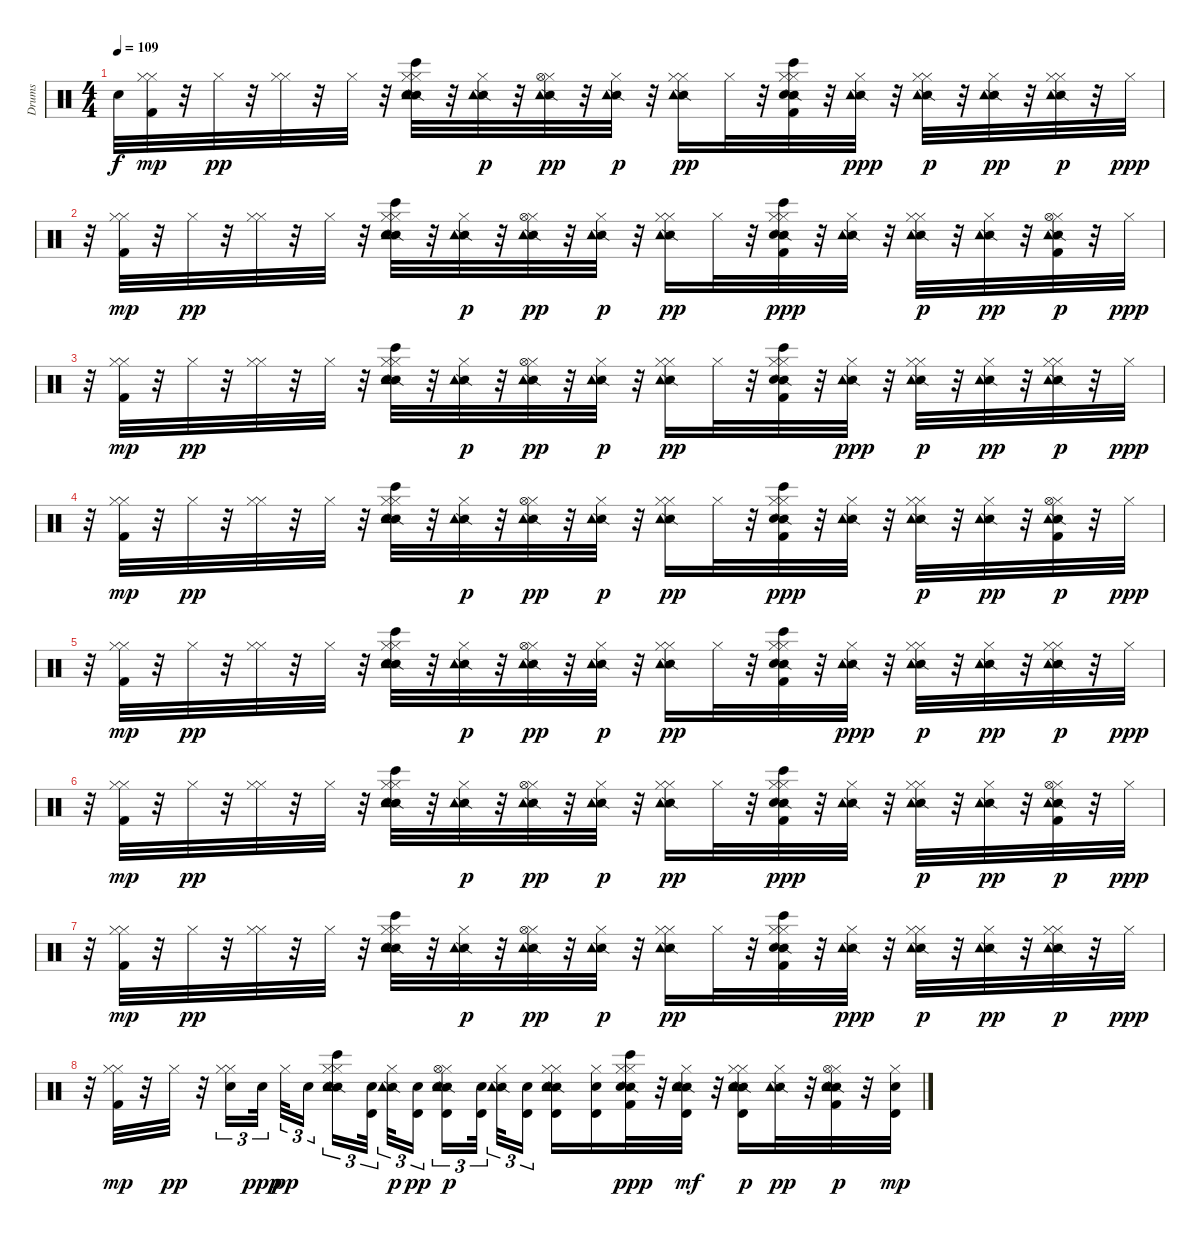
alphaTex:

\track ("Drums" "Drums") {instrument percussion}
\staff {score}
\articulation defaults
\ts (4 4)
\tempo 109
\clef neutral
\ks c "Snare (hit)"{t}.32{dy f}
("Kick (hit) 2" "Hi-Hat (closed)" "Hi-Hat (closed)").32{dy mp} r.32 "Hi-Hat (closed)".32{dy pp} r.32 ("Hi-Hat (closed)" "Hi-Hat (closed)").32 r.32 "Hi-Hat (closed)".32 r.32 ("Hi-Hat (closed)" "Bongo High (hit)" "Snare (side stick) 2" "Electric Snare (hit)" "Hi-Hat (closed)" "Tambourine (hit)").32 r.32 ("Hi-Hat (closed)" "Snare (side stick) 2" "Tambourine (hit)").32{dy p} r.32 ("Hi-Hat (closed)" "Snare (side stick) 2" "Hi-Hat (open)" "Tambourine (hit)").32{dy pp} r.32 ("Hi-Hat (closed)" "Snare (side stick) 2" "Tambourine (hit)").32{dy p} r.32 ("Hi-Hat (closed)" "Snare (side stick) 2" "Hi-Hat (closed)" "Tambourine (hit)").16{dy pp} "Hi-Hat (closed)".32 r.32 ("Kick (hit) 2" "Hi-Hat (closed)" "Bongo High (hit)" "Snare (side stick) 2" "Electric Snare (hit)" "Hi-Hat (closed)").32 r.32 ("Hi-Hat (closed)" "Snare (side stick) 2" "Tambourine (hit)").32{dy ppp} r.32 ("Hi-Hat (closed)" "Snare (side stick) 2" "Hi-Hat (closed)" "Tambourine (hit)").32{dy p} r.32 ("Hi-Hat (closed)" "Snare (side stick) 2" "Tambourine (hit)").32{dy pp} r.32 ("Hi-Hat (closed)" "Snare (side stick) 2" "Hi-Hat (closed)" "Tambourine (hit)").32{dy p} r.32 "Hi-Hat (closed)".32{dy ppp} |
r.32 ("Kick (hit) 2" "Hi-Hat (closed)" "Hi-Hat (closed)").32{dy mp} r.32 "Hi-Hat (closed)".32{dy pp} r.32 ("Hi-Hat (closed)" "Hi-Hat (closed)").32 r.32 "Hi-Hat (closed)".32 r.32 ("Hi-Hat (closed)" "Bongo High (hit)" "Snare (side stick) 2" "Electric Snare (hit)" "Hi-Hat (closed)" "Tambourine (hit)").32 r.32 ("Hi-Hat (closed)" "Snare (side stick) 2" "Tambourine (hit)").32{dy p} r.32 ("Hi-Hat (closed)" "Snare (side stick) 2" "Hi-Hat (open)" "Tambourine (hit)").32{dy pp} r.32 ("Hi-Hat (closed)" "Snare (side stick) 2" "Tambourine (hit)").32{dy p} r.32 ("Hi-Hat (closed)" "Snare (side stick) 2" "Hi-Hat (closed)" "Tambourine (hit)").16{dy pp} "Hi-Hat (closed)".32 r.32 ("Kick (hit) 2" "Hi-Hat (closed)" "Bongo High (hit)" "Snare (side stick) 2" "Electric Snare (hit)" "Hi-Hat (closed)").32{dy ppp} r.32 ("Hi-Hat (closed)" "Snare (side stick) 2" "Tambourine (hit)").32 r.32 ("Hi-Hat (closed)" "Snare (side stick) 2" "Hi-Hat (closed)" "Tambourine (hit)").32{dy p} r.32 ("Hi-Hat (closed)" "Snare (side stick) 2" "Tambourine (hit)").32{dy pp} r.32 ("Kick (hit) 2" "Hi-Hat (closed)" "Snare (side stick) 2" "Hi-Hat (open)" "Tambourine (hit)").32{dy p} r.32 "Hi-Hat (closed)".32{dy ppp} |
r.32 ("Kick (hit) 2" "Hi-Hat (closed)" "Hi-Hat (closed)").32{dy mp} r.32 "Hi-Hat (closed)".32{dy pp} r.32 ("Hi-Hat (closed)" "Hi-Hat (closed)").32 r.32 "Hi-Hat (closed)".32 r.32 ("Hi-Hat (closed)" "Bongo High (hit)" "Snare (side stick) 2" "Electric Snare (hit)" "Hi-Hat (closed)" "Tambourine (hit)").32 r.32 ("Hi-Hat (closed)" "Snare (side stick) 2" "Tambourine (hit)").32{dy p} r.32 ("Hi-Hat (closed)" "Snare (side stick) 2" "Hi-Hat (open)" "Tambourine (hit)").32{dy pp} r.32 ("Hi-Hat (closed)" "Snare (side stick) 2" "Tambourine (hit)").32{dy p} r.32 ("Hi-Hat (closed)" "Snare (side stick) 2" "Hi-Hat (closed)" "Tambourine (hit)").16{dy pp} "Hi-Hat (closed)".32 r.32 ("Kick (hit) 2" "Hi-Hat (closed)" "Bongo High (hit)" "Snare (side stick) 2" "Electric Snare (hit)" "Hi-Hat (closed)").32 r.32 ("Hi-Hat (closed)" "Snare (side stick) 2" "Tambourine (hit)").32{dy ppp} r.32 ("Hi-Hat (closed)" "Snare (side stick) 2" "Hi-Hat (closed)" "Tambourine (hit)").32{dy p} r.32 ("Hi-Hat (closed)" "Snare (side stick) 2" "Tambourine (hit)").32{dy pp} r.32 ("Hi-Hat (closed)" "Snare (side stick) 2" "Hi-Hat (closed)" "Tambourine (hit)").32{dy p} r.32 "Hi-Hat (closed)".32{dy ppp} |
r.32 ("Kick (hit) 2" "Hi-Hat (closed)" "Hi-Hat (closed)").32{dy mp} r.32 "Hi-Hat (closed)".32{dy pp} r.32 ("Hi-Hat (closed)" "Hi-Hat (closed)").32 r.32 "Hi-Hat (closed)".32 r.32 ("Hi-Hat (closed)" "Bongo High (hit)" "Snare (side stick) 2" "Electric Snare (hit)" "Hi-Hat (closed)" "Tambourine (hit)").32 r.32 ("Hi-Hat (closed)" "Snare (side stick) 2" "Tambourine (hit)").32{dy p} r.32 ("Hi-Hat (closed)" "Snare (side stick) 2" "Hi-Hat (open)" "Tambourine (hit)").32{dy pp} r.32 ("Hi-Hat (closed)" "Snare (side stick) 2" "Tambourine (hit)").32{dy p} r.32 ("Hi-Hat (closed)" "Snare (side stick) 2" "Hi-Hat (closed)" "Tambourine (hit)").16{dy pp} "Hi-Hat (closed)".32 r.32 ("Kick (hit) 2" "Hi-Hat (closed)" "Bongo High (hit)" "Snare (side stick) 2" "Electric Snare (hit)" "Hi-Hat (closed)").32{dy ppp} r.32 ("Hi-Hat (closed)" "Snare (side stick) 2" "Tambourine (hit)").32 r.32 ("Hi-Hat (closed)" "Snare (side stick) 2" "Hi-Hat (closed)" "Tambourine (hit)").32{dy p} r.32 ("Hi-Hat (closed)" "Snare (side stick) 2" "Tambourine (hit)").32{dy pp} r.32 ("Kick (hit) 2" "Hi-Hat (closed)" "Snare (side stick) 2" "Hi-Hat (open)" "Tambourine (hit)").32{dy p} r.32 "Hi-Hat (closed)".32{dy ppp} |
r.32 ("Kick (hit) 2" "Hi-Hat (closed)" "Hi-Hat (closed)").32{dy mp} r.32 "Hi-Hat (closed)".32{dy pp} r.32 ("Hi-Hat (closed)" "Hi-Hat (closed)").32 r.32 "Hi-Hat (closed)".32 r.32 ("Hi-Hat (closed)" "Bongo High (hit)" "Snare (side stick) 2" "Electric Snare (hit)" "Hi-Hat (closed)" "Tambourine (hit)").32 r.32 ("Hi-Hat (closed)" "Snare (side stick) 2" "Tambourine (hit)").32{dy p} r.32 ("Hi-Hat (closed)" "Snare (side stick) 2" "Hi-Hat (open)" "Tambourine (hit)").32{dy pp} r.32 ("Hi-Hat (closed)" "Snare (side stick) 2" "Tambourine (hit)").32{dy p} r.32 ("Hi-Hat (closed)" "Snare (side stick) 2" "Hi-Hat (closed)" "Tambourine (hit)").16{dy pp} "Hi-Hat (closed)".32 r.32 ("Kick (hit) 2" "Hi-Hat (closed)" "Bongo High (hit)" "Snare (side stick) 2" "Electric Snare (hit)" "Hi-Hat (closed)").32 r.32 ("Hi-Hat (closed)" "Snare (side stick) 2" "Tambourine (hit)").32{dy ppp} r.32 ("Hi-Hat (closed)" "Snare (side stick) 2" "Hi-Hat (closed)" "Tambourine (hit)").32{dy p} r.32 ("Hi-Hat (closed)" "Snare (side stick) 2" "Tambourine (hit)").32{dy pp} r.32 ("Hi-Hat (closed)" "Snare (side stick) 2" "Hi-Hat (closed)" "Tambourine (hit)").32{dy p} r.32 "Hi-Hat (closed)".32{dy ppp} |
r.32 ("Kick (hit) 2" "Hi-Hat (closed)" "Hi-Hat (closed)").32{dy mp} r.32 "Hi-Hat (closed)".32{dy pp} r.32 ("Hi-Hat (closed)" "Hi-Hat (closed)").32 r.32 "Hi-Hat (closed)".32 r.32 ("Hi-Hat (closed)" "Bongo High (hit)" "Snare (side stick) 2" "Electric Snare (hit)" "Hi-Hat (closed)" "Tambourine (hit)").32 r.32 ("Hi-Hat (closed)" "Snare (side stick) 2" "Tambourine (hit)").32{dy p} r.32 ("Hi-Hat (closed)" "Snare (side stick) 2" "Hi-Hat (open)" "Tambourine (hit)").32{dy pp} r.32 ("Hi-Hat (closed)" "Snare (side stick) 2" "Tambourine (hit)").32{dy p} r.32 ("Hi-Hat (closed)" "Snare (side stick) 2" "Hi-Hat (closed)" "Tambourine (hit)").16{dy pp} "Hi-Hat (closed)".32 r.32 ("Hi-Hat (closed)" "Bongo High (hit)" "Snare (side stick) 2" "Kick (hit) 2" "Electric Snare (hit)" "Hi-Hat (closed)").32{dy ppp} r.32 ("Hi-Hat (closed)" "Snare (side stick) 2" "Tambourine (hit)").32 r.32 ("Hi-Hat (closed)" "Snare (side stick) 2" "Hi-Hat (closed)" "Tambourine (hit)").32{dy p} r.32 ("Hi-Hat (closed)" "Snare (side stick) 2" "Tambourine (hit)").32{dy pp} r.32 ("Hi-Hat (closed)" "Snare (side stick) 2" "Kick (hit) 2" "Hi-Hat (open)" "Tambourine (hit)").32{dy p} r.32 "Hi-Hat (closed)".32{dy ppp} |
r.32 ("Hi-Hat (closed)" "Kick (hit) 2" "Hi-Hat (closed)").32{dy mp} r.32 "Hi-Hat (closed)".32{dy pp} r.32 ("Hi-Hat (closed)" "Hi-Hat (closed)").32 r.32 "Hi-Hat (closed)".32 r.32 ("Hi-Hat (closed)" "Bongo High (hit)" "Snare (side stick) 2" "Electric Snare (hit)" "Hi-Hat (closed)" "Tambourine (hit)").32 r.32 ("Hi-Hat (closed)" "Snare (side stick) 2" "Tambourine (hit)").32{dy p} r.32 ("Hi-Hat (closed)" "Snare (side stick) 2" "Hi-Hat (open)" "Tambourine (hit)").32{dy pp} r.32 ("Hi-Hat (closed)" "Snare (side stick) 2" "Tambourine (hit)").32{dy p} r.32 ("Hi-Hat (closed)" "Snare (side stick) 2" "Hi-Hat (closed)" "Tambourine (hit)").16{dy pp} "Hi-Hat (closed)".32 r.32 ("Hi-Hat (closed)" "Bongo High (hit)" "Snare (side stick) 2" "Kick (hit) 2" "Electric Snare (hit)" "Hi-Hat (closed)").32 r.32 ("Hi-Hat (closed)" "Snare (side stick) 2" "Tambourine (hit)").32{dy ppp} r.32 ("Hi-Hat (closed)" "Snare (side stick) 2" "Hi-Hat (closed)" "Tambourine (hit)").32{dy p} r.32 ("Hi-Hat (closed)" "Snare (side stick) 2" "Tambourine (hit)").32{dy pp} r.32 ("Hi-Hat (closed)" "Snare (side stick) 2" "Hi-Hat (closed)" "Tambourine (hit)").32{dy p} r.32 "Hi-Hat (closed)".32{dy ppp} |
r.32 ("Hi-Hat (closed)" "Kick (hit) 2" "Hi-Hat (closed)").32{dy mp} r.32 "Hi-Hat (closed)".32{dy pp} r.32 ("Hi-Hat (closed)" "Electric Snare (hit)" "Hi-Hat (closed)").16{tu (3 2)} "Electric Snare (hit)".32{tu (3 2) dy ppp beam splitsecondary} "Hi-Hat (closed)".32{tu (3 2) dy pp} "Electric Snare (hit)".16{tu (3 2)} ("Hi-Hat (closed)" "Bongo High (hit)" "Snare (side stick) 2" "Electric Snare (hit)" "Hi-Hat (closed)" "Tambourine (hit)").16{tu (3 2)} ("Electric Snare (hit)" "Timbale high (hit)").32{tu (3 2) beam splitsecondary} ("Hi-Hat (closed)" "Snare (side stick) 2" "Tambourine (hit)").32{tu (3 2) dy p} ("Electric Snare (hit)" "Timbale high (hit)").16{tu (3 2) dy pp beam splitsecondary} ("Hi-Hat (closed)" "Snare (side stick) 2" "Electric Snare (hit)" "Hi-Hat (open)" "Tambourine (hit)" "Timbale high (hit)").16{tu (3 2) dy p} ("Electric Snare (hit)" "Timbale high (hit)").32{tu (3 2) beam splitsecondary} ("Hi-Hat (closed)" "Snare (side stick) 2" "Tambourine (hit)").32{tu (3 2)} ("Electric Snare (hit)" "Timbale high (hit)").16{tu (3 2)} ("Hi-Hat (closed)" "Snare (side stick) 2" "Electric Snare (hit)" "Hi-Hat (closed)" "Tambourine (hit)" "Timbale high (hit)").16 ("Hi-Hat (closed)" "Electric Snare (hit)" "Timbale high (hit)").16 ("Hi-Hat (closed)" "Bongo High (hit)" "Snare (side stick) 2" "Kick (hit) 2" "Electric Snare (hit)" "Hi-Hat (closed)").32{dy ppp} r.32 ("Hi-Hat (closed)" "Snare (side stick) 2" "Electric Snare (hit)" "Tambourine (hit)" "Timbale high (hit)").32{dy mf} r.32 ("Hi-Hat (closed)" "Snare (side stick) 2" "Electric Snare (hit)" "Hi-Hat (closed)" "Tambourine (hit)" "Timbale high (hit)").16{dy p} ("Hi-Hat (closed)" "Snare (side stick) 2" "Tambourine (hit)").32{dy pp} r.32 ("Hi-Hat (closed)" "Snare (side stick) 2" "Kick (hit) 2" "Electric Snare (hit)" "Hi-Hat (open)" "Tambourine (hit)").32{dy p} r.32 ("Hi-Hat (closed)" "Electric Snare (hit)" "Timbale high (hit)").32{dy mp}
